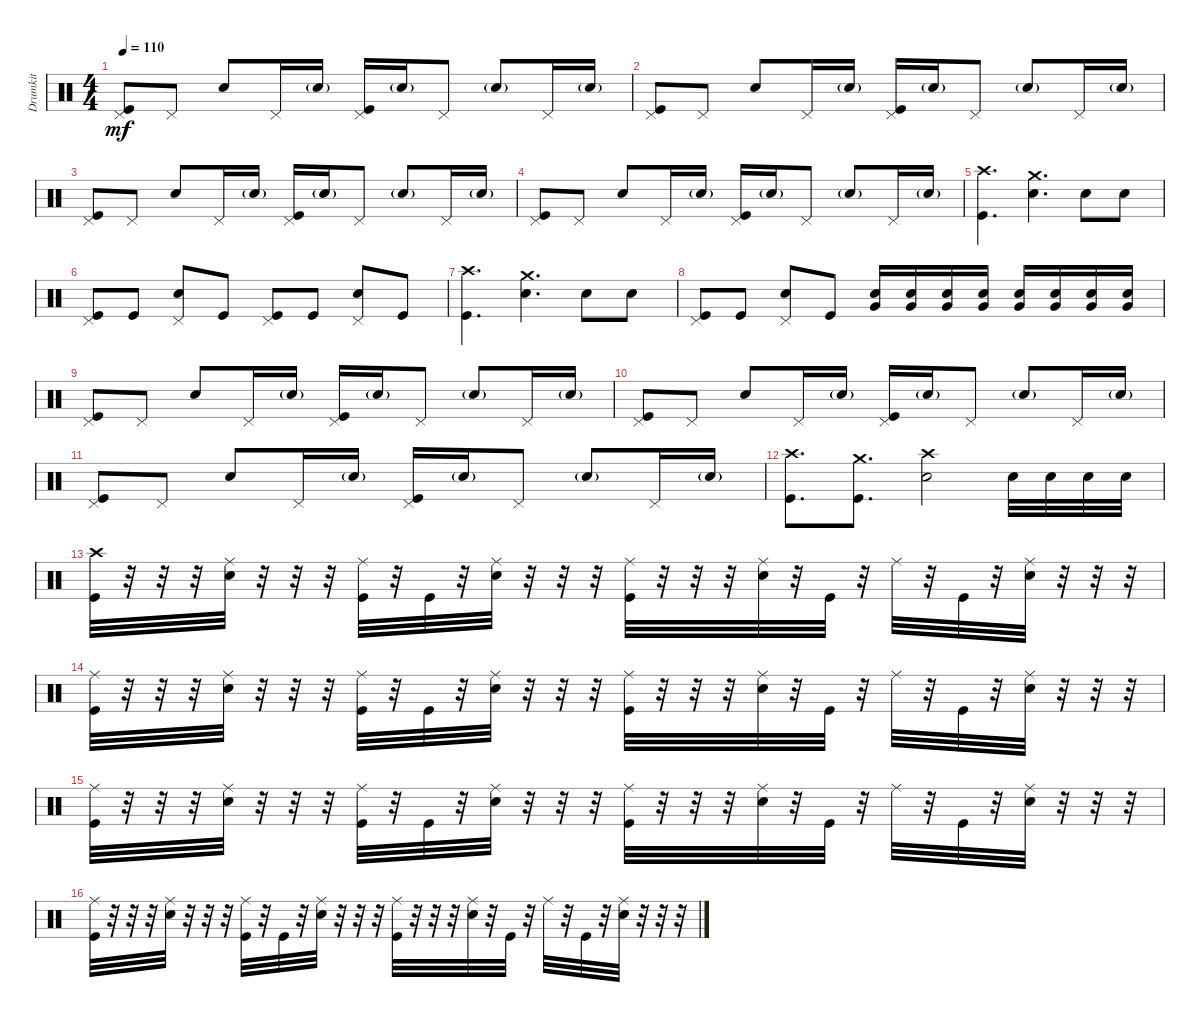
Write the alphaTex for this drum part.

\track ("Drumkit" "Drumkit") {instrument percussion}
\staff {score}
\articulation defaults
\ts (4 4)
\tempo 110
\clef neutral
\ks c
("Kick (hit)" "Pedal Hi-Hat (hit)").8{dy mf} "Pedal Hi-Hat (hit)".8 "Snare (hit) 2".8 "Pedal Hi-Hat (hit)".16 "Snare (hit) 2"{g}.16 ("Pedal Hi-Hat (hit)" "Kick (hit)").16 "Snare (hit) 2"{g}.16 "Pedal Hi-Hat (hit)".8 "Snare (hit) 2"{g}.8 "Pedal Hi-Hat (hit)".16 "Snare (hit) 2"{g}.16 |
("Kick (hit)" "Pedal Hi-Hat (hit)").8 "Pedal Hi-Hat (hit)".8 "Snare (hit) 2".8 "Pedal Hi-Hat (hit)".16 "Snare (hit) 2"{g}.16 ("Pedal Hi-Hat (hit)" "Kick (hit)").16 "Snare (hit) 2"{g}.16 "Pedal Hi-Hat (hit)".8 "Snare (hit) 2"{g}.8 "Pedal Hi-Hat (hit)".16 "Snare (hit) 2"{g}.16 |
("Kick (hit)" "Pedal Hi-Hat (hit)").8 "Pedal Hi-Hat (hit)".8 "Snare (hit) 2".8 "Pedal Hi-Hat (hit)".16 "Snare (hit) 2"{g}.16 ("Pedal Hi-Hat (hit)" "Kick (hit)").16 "Snare (hit) 2"{g}.16 "Pedal Hi-Hat (hit)".8 "Snare (hit) 2"{g}.8 "Pedal Hi-Hat (hit)".16 "Snare (hit) 2"{g}.16 |
("Kick (hit)" "Pedal Hi-Hat (hit)").8 "Pedal Hi-Hat (hit)".8 "Snare (hit) 2".8 "Pedal Hi-Hat (hit)".16 "Snare (hit) 2"{g}.16 ("Pedal Hi-Hat (hit)" "Kick (hit)").16 "Snare (hit) 2"{g}.16 "Pedal Hi-Hat (hit)".8 "Snare (hit) 2"{g}.8 "Pedal Hi-Hat (hit)".16 "Snare (hit) 2"{g}.16 |
("Kick (hit)" "Crash high (hit)").4{d} ("Snare (hit) 2" "Crash medium (hit)").4{d} "Snare (hit) 2".8 "Snare (hit) 2".8 |
("Kick (hit)" "Pedal Hi-Hat (hit)").8 "Kick (hit)".8 ("Snare (hit) 2" "Pedal Hi-Hat (hit)").8 "Kick (hit)".8 ("Kick (hit)" "Pedal Hi-Hat (hit)").8 "Kick (hit)".8 ("Snare (hit) 2" "Pedal Hi-Hat (hit)").8 "Kick (hit)".8 |
("Kick (hit)" "Crash high (hit)").4{d} ("Snare (hit) 2" "Crash medium (hit)").4{d} "Snare (hit) 2".8 "Snare (hit) 2".8 |
("Kick (hit)" "Pedal Hi-Hat (hit)").8 "Kick (hit)".8 ("Snare (hit) 2" "Pedal Hi-Hat (hit)").8 "Kick (hit)".8 ("Snare (hit) 2" "Very Low Tom (hit)").16 ("Snare (hit) 2" "Very Low Tom (hit)").16 ("Snare (hit) 2" "Very Low Tom (hit)").16 ("Snare (hit) 2" "Very Low Tom (hit)").16 ("Snare (hit) 2" "Very Low Tom (hit)").16 ("Snare (hit) 2" "Very Low Tom (hit)").16 ("Snare (hit) 2" "Very Low Tom (hit)").16 ("Snare (hit) 2" "Very Low Tom (hit)").16 |
("Kick (hit)" "Pedal Hi-Hat (hit)").8 "Pedal Hi-Hat (hit)".8 "Snare (hit) 2".8 "Pedal Hi-Hat (hit)".16 "Snare (hit) 2"{g}.16 ("Pedal Hi-Hat (hit)" "Kick (hit)").16 "Snare (hit) 2"{g}.16 "Pedal Hi-Hat (hit)".8 "Snare (hit) 2"{g}.8 "Pedal Hi-Hat (hit)".16 "Snare (hit) 2"{g}.16 |
("Kick (hit)" "Pedal Hi-Hat (hit)").8 "Pedal Hi-Hat (hit)".8 "Snare (hit) 2".8 "Pedal Hi-Hat (hit)".16 "Snare (hit) 2"{g}.16 ("Pedal Hi-Hat (hit)" "Kick (hit)").16 "Snare (hit) 2"{g}.16 "Pedal Hi-Hat (hit)".8 "Snare (hit) 2"{g}.8 "Pedal Hi-Hat (hit)".16 "Snare (hit) 2"{g}.16 |
("Kick (hit)" "Pedal Hi-Hat (hit)").8 "Pedal Hi-Hat (hit)".8 "Snare (hit) 2".8 "Pedal Hi-Hat (hit)".16 "Snare (hit) 2"{g}.16 ("Pedal Hi-Hat (hit)" "Kick (hit)").16 "Snare (hit) 2"{g}.16 "Pedal Hi-Hat (hit)".8 "Snare (hit) 2"{g}.8 "Pedal Hi-Hat (hit)".16 "Snare (hit) 2"{g}.16 |
("Kick (hit)" "Crash high (hit)").8{d} ("Kick (hit)" "Crash medium (hit)").8{d} ("Snare (hit) 2" "Crash high (hit)").2 "Snare (hit) 2".32 "Snare (hit) 2".32 "Snare (hit) 2".32 "Snare (hit) 2".32 |
("Kick (hit)" "Crash high (hit)").32 r.32 r.32 r.32 ("Snare (hit) 2" "Ride (middle)").32 r.32 r.32 r.32 ("Kick (hit)" "Ride (middle)").32 r.32 "Kick (hit)".32 r.32 ("Snare (hit) 2" "Ride (middle)").32 r.32 r.32 r.32 ("Kick (hit)" "Ride (middle)").32 r.32 r.32 r.32 ("Ride (middle)" "Snare (hit) 2").32 r.32 "Kick (hit)".32 r.32 "Ride (middle)".32 r.32 "Kick (hit)".32 r.32 ("Ride (middle)" "Snare (hit) 2").32 r.32 r.32 r.32 |
("Kick (hit)" "Ride (middle)").32 r.32 r.32 r.32 ("Snare (hit) 2" "Ride (middle)").32 r.32 r.32 r.32 ("Kick (hit)" "Ride (middle)").32 r.32 "Kick (hit)".32 r.32 ("Snare (hit) 2" "Ride (middle)").32 r.32 r.32 r.32 ("Kick (hit)" "Ride (middle)").32 r.32 r.32 r.32 ("Ride (middle)" "Snare (hit) 2").32 r.32 "Kick (hit)".32 r.32 "Ride (middle)".32 r.32 "Kick (hit)".32 r.32 ("Ride (middle)" "Snare (hit) 2").32 r.32 r.32 r.32 |
("Kick (hit)" "Ride (middle)").32 r.32 r.32 r.32 ("Snare (hit) 2" "Ride (middle)").32 r.32 r.32 r.32 ("Kick (hit)" "Ride (middle)").32 r.32 "Kick (hit)".32 r.32 ("Snare (hit) 2" "Ride (middle)").32 r.32 r.32 r.32 ("Kick (hit)" "Ride (middle)").32 r.32 r.32 r.32 ("Ride (middle)" "Snare (hit) 2").32 r.32 "Kick (hit)".32 r.32 "Ride (middle)".32 r.32 "Kick (hit)".32 r.32 ("Ride (middle)" "Snare (hit) 2").32 r.32 r.32 r.32 |
("Kick (hit)" "Ride (middle)").32 r.32 r.32 r.32 ("Snare (hit) 2" "Ride (middle)").32 r.32 r.32 r.32 ("Kick (hit)" "Ride (middle)").32 r.32 "Kick (hit)".32 r.32 ("Snare (hit) 2" "Ride (middle)").32 r.32 r.32 r.32 ("Kick (hit)" "Ride (middle)").32 r.32 r.32 r.32 ("Ride (middle)" "Snare (hit) 2").32 r.32 "Kick (hit)".32 r.32 "Ride (middle)".32 r.32 "Kick (hit)".32 r.32 ("Ride (middle)" "Snare (hit) 2").32 r.32 r.32 r.32
